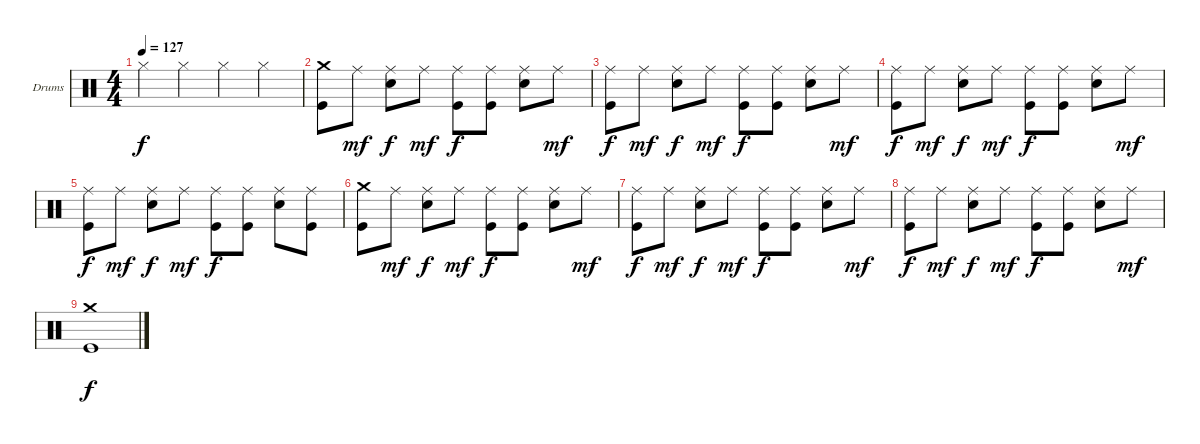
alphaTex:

\defaultSystemsLayout 4
\bracketExtendMode groupsimilarinstruments
\firstSystemTrackNameOrientation horizontal
\otherSystemsTrackNameOrientation horizontal
\track ("Drumkit" "Drums") {instrument percussion}
\staff {score}
\articulation defaults
\ts (4 4)
\tempo 127
\clef neutral
\ks c "Hi-Hat (closed)".4{dy f} "Hi-Hat (closed)".4 "Hi-Hat (closed)".4 "Hi-Hat (closed)".4
|
("Crash medium (hit)" "Kick (hit)").8 "Ride (middle)".8{dy mf} ("Ride (middle)" "Snare (hit) 2").8{dy f} "Ride (middle)".8{dy mf} ("Ride (middle)" "Kick (hit)").8{dy f} ("Ride (middle)" "Kick (hit)").8 ("Ride (middle)" "Snare (hit) 2").8 "Ride (middle)".8{dy mf} |
("Kick (hit)" "Ride (middle)").8{dy f} "Ride (middle)".8{dy mf} ("Ride (middle)" "Snare (hit) 2").8{dy f} "Ride (middle)".8{dy mf} ("Ride (middle)" "Kick (hit)").8{dy f} ("Ride (middle)" "Kick (hit)").8 ("Ride (middle)" "Snare (hit) 2").8 "Ride (middle)".8{dy mf} |
("Kick (hit)" "Ride (middle)").8{dy f} "Ride (middle)".8{dy mf} ("Ride (middle)" "Snare (hit) 2").8{dy f} "Ride (middle)".8{dy mf} ("Ride (middle)" "Kick (hit)").8{dy f} ("Ride (middle)" "Kick (hit)").8 ("Ride (middle)" "Snare (hit) 2").8 "Ride (middle)".8{dy mf} |
("Kick (hit)" "Ride (middle)").8{dy f} "Ride (middle)".8{dy mf} ("Ride (middle)" "Snare (hit) 2").8{dy f} "Ride (middle)".8{dy mf} ("Ride (middle)" "Kick (hit)").8{dy f} ("Ride (middle)" "Kick (hit)").8 ("Ride (middle)" "Snare (hit) 2").8 ("Ride (middle)" "Kick (hit)").8 |
("Crash medium (hit)" "Kick (hit)").8 "Ride (middle)".8{dy mf} ("Ride (middle)" "Snare (hit) 2").8{dy f} "Ride (middle)".8{dy mf} ("Ride (middle)" "Kick (hit)").8{dy f} ("Ride (middle)" "Kick (hit)").8 ("Ride (middle)" "Snare (hit) 2").8 "Ride (middle)".8{dy mf} |
("Kick (hit)" "Ride (middle)").8{dy f} "Ride (middle)".8{dy mf} ("Ride (middle)" "Snare (hit) 2").8{dy f} "Ride (middle)".8{dy mf} ("Ride (middle)" "Kick (hit)").8{dy f} ("Ride (middle)" "Kick (hit)").8 ("Ride (middle)" "Snare (hit) 2").8 "Ride (middle)".8{dy mf} |
("Kick (hit)" "Ride (middle)").8{dy f} "Ride (middle)".8{dy mf} ("Ride (middle)" "Snare (hit) 2").8{dy f} "Ride (middle)".8{dy mf} ("Ride (middle)" "Kick (hit)").8{dy f} ("Ride (middle)" "Kick (hit)").8 ("Ride (middle)" "Snare (hit) 2").8 "Ride (middle)".8{dy mf} |
("Crash medium (hit)" "Kick (hit)").1{dy f}
